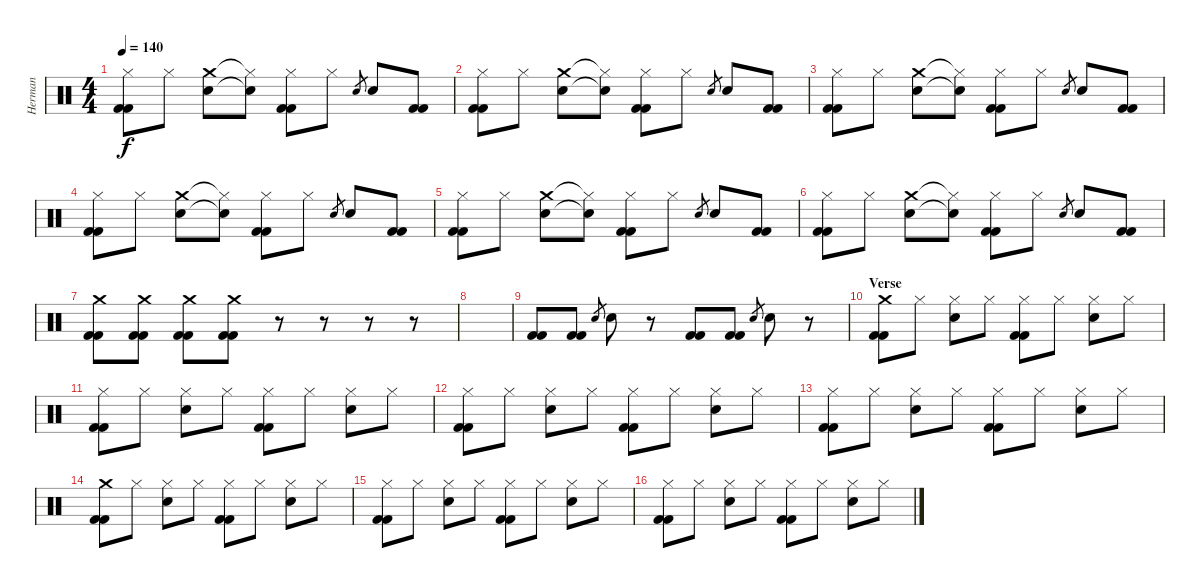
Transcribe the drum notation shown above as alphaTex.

\track ("Herman" "Herman") {instrument percussion}
\staff {score}
\articulation defaults
\ts (4 4)
\tempo 140
\clef neutral
\ks c
("Hi-Hat (closed)" "Kick (hit) 2" "Kick (hit) 2").8{dy f} "Hi-Hat (closed)".8 ("Electric Snare (hit)" "Crash medium (hit)").8 ("Snare (hit)"{t} "Hi-Hat (closed)"{t}).8 ("Hi-Hat (closed)" "Kick (hit) 2" "Kick (hit) 2").8 "Hi-Hat (closed)".8 "Electric Snare (hit)".8{gr} "Electric Snare (hit)".8 ("Kick (hit) 2" "Kick (hit) 2").8 |
("Hi-Hat (closed)" "Kick (hit) 2" "Kick (hit) 2").8 "Hi-Hat (closed)".8 ("Electric Snare (hit)" "Crash medium (hit)").8 ("Snare (hit)"{t} "Hi-Hat (closed)"{t}).8 ("Hi-Hat (closed)" "Kick (hit) 2" "Kick (hit) 2").8 "Hi-Hat (closed)".8 "Electric Snare (hit)".8{gr} "Electric Snare (hit)".8 ("Kick (hit) 2" "Kick (hit) 2").8 |
("Hi-Hat (closed)" "Kick (hit) 2" "Kick (hit) 2").8 "Hi-Hat (closed)".8 ("Electric Snare (hit)" "Crash medium (hit)").8 ("Snare (hit)"{t} "Hi-Hat (closed)"{t}).8 ("Hi-Hat (closed)" "Kick (hit) 2" "Kick (hit) 2").8 "Hi-Hat (closed)".8 "Electric Snare (hit)".8{gr} "Electric Snare (hit)".8 ("Kick (hit) 2" "Kick (hit) 2").8 |
("Hi-Hat (closed)" "Kick (hit) 2" "Kick (hit) 2").8 "Hi-Hat (closed)".8 ("Electric Snare (hit)" "Crash medium (hit)").8 ("Snare (hit)"{t} "Hi-Hat (closed)"{t}).8 ("Hi-Hat (closed)" "Kick (hit) 2" "Kick (hit) 2").8 "Hi-Hat (closed)".8 "Electric Snare (hit)".8{gr} "Electric Snare (hit)".8 ("Kick (hit) 2" "Kick (hit) 2").8 |
("Hi-Hat (closed)" "Kick (hit) 2" "Kick (hit) 2").8 "Hi-Hat (closed)".8 ("Electric Snare (hit)" "Crash medium (hit)").8 ("Snare (hit)"{t} "Hi-Hat (closed)"{t}).8 ("Hi-Hat (closed)" "Kick (hit) 2" "Kick (hit) 2").8 "Hi-Hat (closed)".8 "Electric Snare (hit)".8{gr} "Electric Snare (hit)".8 ("Kick (hit) 2" "Kick (hit) 2").8 |
("Hi-Hat (closed)" "Kick (hit) 2" "Kick (hit) 2").8 "Hi-Hat (closed)".8 ("Electric Snare (hit)" "Crash medium (hit)").8 ("Snare (hit)"{t} "Hi-Hat (closed)"{t}).8 ("Hi-Hat (closed)" "Kick (hit) 2" "Kick (hit) 2").8 "Hi-Hat (closed)".8 "Electric Snare (hit)".8{gr} "Electric Snare (hit)".8 ("Kick (hit) 2" "Kick (hit) 2").8 |
("Crash medium (hit)" "Kick (hit) 2" "Kick (hit) 2").8 ("Kick (hit) 2" "Kick (hit) 2" "Crash medium (hit)").8 ("Crash medium (hit)" "Kick (hit) 2" "Kick (hit) 2").8 ("Kick (hit) 2" "Kick (hit) 2" "Crash medium (hit)").8 r.8 r.8 r.8 r.8 |
|
\section ("" "")
("Kick (hit) 2" "Kick (hit) 2").8 ("Kick (hit) 2" "Kick (hit) 2").8 "Electric Snare (hit)".8{gr} "Electric Snare (hit)".8 r.8 ("Kick (hit) 2" "Kick (hit) 2").8 ("Kick (hit) 2" "Kick (hit) 2").8 "Electric Snare (hit)".8{gr} "Electric Snare (hit)".8 r.8 |
\section ("" "Verse ")
("Crash medium (hit)" "Kick (hit) 2" "Kick (hit) 2").8 "Hi-Hat (closed)".8 ("Hi-Hat (closed)" "Electric Snare (hit)").8 "Hi-Hat (closed)".8 ("Kick (hit) 2" "Kick (hit) 2" "Hi-Hat (closed)").8 "Hi-Hat (closed)".8 ("Hi-Hat (closed)" "Electric Snare (hit)").8 "Hi-Hat (closed)".8 |
("Hi-Hat (closed)" "Kick (hit) 2" "Kick (hit) 2").8 "Hi-Hat (closed)".8 ("Hi-Hat (closed)" "Electric Snare (hit)").8 "Hi-Hat (closed)".8 ("Kick (hit) 2" "Kick (hit) 2" "Hi-Hat (closed)").8 "Hi-Hat (closed)".8 ("Hi-Hat (closed)" "Electric Snare (hit)").8 "Hi-Hat (closed)".8 |
("Hi-Hat (closed)" "Kick (hit) 2" "Kick (hit) 2").8 "Hi-Hat (closed)".8 ("Hi-Hat (closed)" "Electric Snare (hit)").8 "Hi-Hat (closed)".8 ("Kick (hit) 2" "Kick (hit) 2" "Hi-Hat (closed)").8 "Hi-Hat (closed)".8 ("Hi-Hat (closed)" "Electric Snare (hit)").8 "Hi-Hat (closed)".8 |
("Hi-Hat (closed)" "Kick (hit) 2" "Kick (hit) 2").8 "Hi-Hat (closed)".8 ("Hi-Hat (closed)" "Electric Snare (hit)").8 "Hi-Hat (closed)".8 ("Kick (hit) 2" "Kick (hit) 2" "Hi-Hat (closed)").8 "Hi-Hat (closed)".8 ("Hi-Hat (closed)" "Electric Snare (hit)").8 "Hi-Hat (closed)".8 |
("Crash medium (hit)" "Kick (hit) 2" "Kick (hit) 2").8 "Hi-Hat (closed)".8 ("Hi-Hat (closed)" "Electric Snare (hit)").8 "Hi-Hat (closed)".8 ("Kick (hit) 2" "Kick (hit) 2" "Hi-Hat (closed)").8 "Hi-Hat (closed)".8 ("Hi-Hat (closed)" "Electric Snare (hit)").8 "Hi-Hat (closed)".8 |
("Hi-Hat (closed)" "Kick (hit) 2" "Kick (hit) 2").8 "Hi-Hat (closed)".8 ("Hi-Hat (closed)" "Electric Snare (hit)").8 "Hi-Hat (closed)".8 ("Kick (hit) 2" "Kick (hit) 2" "Hi-Hat (closed)").8 "Hi-Hat (closed)".8 ("Hi-Hat (closed)" "Electric Snare (hit)").8 "Hi-Hat (closed)".8 |
("Hi-Hat (closed)" "Kick (hit) 2" "Kick (hit) 2").8 "Hi-Hat (closed)".8 ("Hi-Hat (closed)" "Electric Snare (hit)").8 "Hi-Hat (closed)".8 ("Kick (hit) 2" "Kick (hit) 2" "Hi-Hat (closed)").8 "Hi-Hat (closed)".8 ("Hi-Hat (closed)" "Electric Snare (hit)").8 "Hi-Hat (closed)".8
